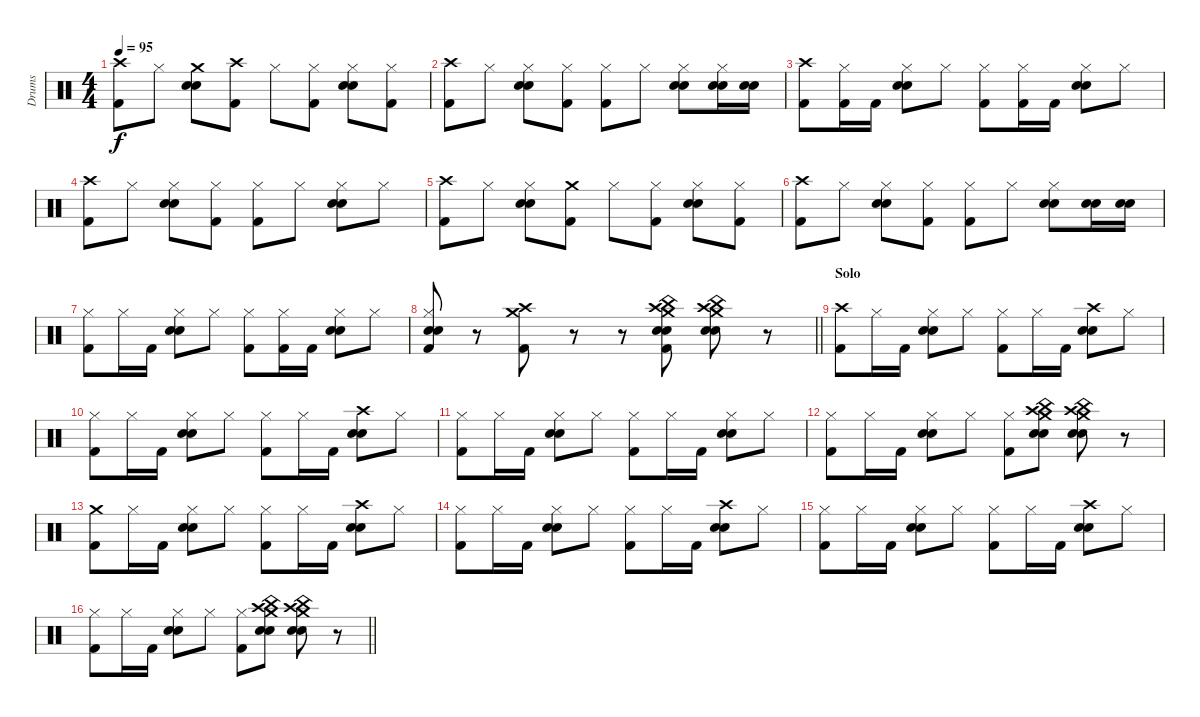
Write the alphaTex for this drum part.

\track ("Drums" "Drums") {instrument percussion}
\staff {score}
\articulation defaults
\ts (4 4)
\tempo 95
\clef neutral
\ks aminor
("Crash high (hit)" "Kick (hit) 2").8{dy f} "Hi-Hat (closed)".8 ("Crash medium (hit)" "Snare (hit) 2" "Electric Snare (hit)").8 ("Crash high (hit)" "Kick (hit) 2").8 "Hi-Hat (closed)".8 ("Hi-Hat (closed)" "Kick (hit) 2").8 ("Hi-Hat (closed)" "Snare (hit) 2" "Electric Snare (hit)").8 ("Hi-Hat (closed)" "Kick (hit) 2").8 |
("Crash high (hit)" "Kick (hit) 2").8 "Hi-Hat (closed)".8 ("Hi-Hat (closed)" "Snare (hit) 2" "Electric Snare (hit)").8 ("Hi-Hat (closed)" "Kick (hit) 2").8 ("Hi-Hat (closed)" "Kick (hit) 2").8 "Hi-Hat (closed)".8 ("Hi-Hat (closed)" "Snare (hit) 2" "Electric Snare (hit)").8 ("Hi-Hat (closed)" "Snare (hit) 2" "Electric Snare (hit)").16 ("Snare (hit) 2" "Electric Snare (hit)").16 |
("Crash high (hit)" "Kick (hit) 2").8 ("Hi-Hat (closed)" "Kick (hit) 2").16 "Kick (hit) 2".16 ("Hi-Hat (closed)" "Snare (hit) 2" "Electric Snare (hit)").8 "Hi-Hat (closed)".8 ("Hi-Hat (closed)" "Kick (hit) 2").8 ("Hi-Hat (closed)" "Kick (hit) 2").16 "Kick (hit) 2".16 ("Hi-Hat (closed)" "Snare (hit) 2" "Electric Snare (hit)").8 "Hi-Hat (closed)".8 |
("Crash high (hit)" "Kick (hit) 2").8 "Hi-Hat (closed)".8 ("Hi-Hat (closed)" "Snare (hit) 2" "Electric Snare (hit)").8 ("Hi-Hat (closed)" "Kick (hit) 2").8 ("Hi-Hat (closed)" "Kick (hit) 2").8 "Hi-Hat (closed)".8 ("Hi-Hat (closed)" "Snare (hit) 2" "Electric Snare (hit)").8 "Hi-Hat (closed)".8 |
("Crash high (hit)" "Kick (hit) 2").8 "Hi-Hat (closed)".8 ("Hi-Hat (closed)" "Snare (hit) 2" "Electric Snare (hit)").8 ("Crash medium (hit)" "Kick (hit) 2").8 "Hi-Hat (closed)".8 ("Hi-Hat (closed)" "Kick (hit) 2").8 ("Hi-Hat (closed)" "Snare (hit) 2" "Electric Snare (hit)").8 ("Hi-Hat (closed)" "Kick (hit) 2").8 |
("Crash high (hit)" "Kick (hit) 2").8 "Hi-Hat (closed)".8 ("Hi-Hat (closed)" "Snare (hit) 2" "Electric Snare (hit)").8 ("Hi-Hat (closed)" "Kick (hit) 2").8 ("Hi-Hat (closed)" "Kick (hit) 2").8 "Hi-Hat (closed)".8 ("Hi-Hat (closed)" "Snare (hit) 2" "Electric Snare (hit)").8 ("Snare (hit) 2" "Electric Snare (hit)").16 ("Snare (hit) 2" "Electric Snare (hit)").16 |
("Hi-Hat (closed)" "Kick (hit) 2").8 "Hi-Hat (closed)".16 "Kick (hit) 2".16 ("Hi-Hat (closed)" "Snare (hit) 2" "Electric Snare (hit)").8 "Hi-Hat (closed)".8 ("Hi-Hat (closed)" "Kick (hit) 2").8 ("Hi-Hat (closed)" "Kick (hit) 2").16 "Kick (hit) 2".16 ("Hi-Hat (closed)" "Snare (hit) 2" "Electric Snare (hit)").8 "Hi-Hat (closed)".8 |
\barLineRight lightlight
("Hi-Hat (closed)" "Snare (hit) 2" "Electric Snare (hit)" "Kick (hit) 2").8 r.8 ("Crash high (hit)" "Crash medium (hit)" "Kick (hit) 2").8 r.8 r.8 ("Crash high (hit)" "Crash medium (hit)" "China (hit)" "Snare (hit) 2" "Electric Snare (hit)" "Kick (hit) 2").8 ("Crash high (hit)" "Crash medium (hit)" "China (hit)" "Snare (hit) 2" "Electric Snare (hit)").8 r.8 |
\section ("" "Solo")
("Crash high (hit)" "Kick (hit) 2").8 "Hi-Hat (closed)".16 "Kick (hit) 2".16 ("Hi-Hat (closed)" "Snare (hit) 2" "Electric Snare (hit)").8 "Hi-Hat (closed)".8 ("Hi-Hat (closed)" "Kick (hit) 2").8 "Hi-Hat (closed)".16 "Kick (hit) 2".16 ("Crash high (hit)" "Snare (hit) 2" "Electric Snare (hit)").8 "Hi-Hat (closed)".8 |
("Hi-Hat (closed)" "Kick (hit) 2").8 "Hi-Hat (closed)".16 "Kick (hit) 2".16 ("Hi-Hat (closed)" "Snare (hit) 2" "Electric Snare (hit)").8 "Hi-Hat (closed)".8 ("Hi-Hat (closed)" "Kick (hit) 2").8 "Hi-Hat (closed)".16 "Kick (hit) 2".16 ("Crash high (hit)" "Snare (hit) 2" "Electric Snare (hit)").8 "Hi-Hat (closed)".8 |
("Hi-Hat (closed)" "Kick (hit) 2").8 "Hi-Hat (closed)".16 "Kick (hit) 2".16 ("Hi-Hat (closed)" "Snare (hit) 2" "Electric Snare (hit)").8 "Hi-Hat (closed)".8 ("Hi-Hat (closed)" "Kick (hit) 2").8 "Hi-Hat (closed)".16 "Kick (hit) 2".16 ("Hi-Hat (closed)" "Snare (hit) 2" "Electric Snare (hit)").8 "Hi-Hat (closed)".8 |
("Hi-Hat (closed)" "Kick (hit) 2").8 "Hi-Hat (closed)".16 "Kick (hit) 2".16 ("Hi-Hat (closed)" "Snare (hit) 2" "Electric Snare (hit)").8 "Hi-Hat (closed)".8 ("Hi-Hat (closed)" "Kick (hit) 2").8 ("Crash high (hit)" "Crash medium (hit)" "China (hit)" "Snare (hit) 2" "Electric Snare (hit)").8 ("Crash high (hit)" "Crash medium (hit)" "China (hit)" "Snare (hit) 2" "Electric Snare (hit)").8 r.8 |
("Crash medium (hit)" "Kick (hit) 2").8 "Hi-Hat (closed)".16 "Kick (hit) 2".16 ("Hi-Hat (closed)" "Snare (hit) 2" "Electric Snare (hit)").8 "Hi-Hat (closed)".8 ("Hi-Hat (closed)" "Kick (hit) 2").8 "Hi-Hat (closed)".16 "Kick (hit) 2".16 ("Crash high (hit)" "Snare (hit) 2" "Electric Snare (hit)").8 "Hi-Hat (closed)".8 |
("Hi-Hat (closed)" "Kick (hit) 2").8 "Hi-Hat (closed)".16 "Kick (hit) 2".16 ("Hi-Hat (closed)" "Snare (hit) 2" "Electric Snare (hit)").8 "Hi-Hat (closed)".8 ("Hi-Hat (closed)" "Kick (hit) 2").8 "Hi-Hat (closed)".16 "Kick (hit) 2".16 ("Crash high (hit)" "Snare (hit) 2" "Electric Snare (hit)").8 "Hi-Hat (closed)".8 |
("Hi-Hat (closed)" "Kick (hit) 2").8 "Hi-Hat (closed)".16 "Kick (hit) 2".16 ("Hi-Hat (closed)" "Snare (hit) 2" "Electric Snare (hit)").8 "Hi-Hat (closed)".8 ("Hi-Hat (closed)" "Kick (hit) 2").8 "Hi-Hat (closed)".16 "Kick (hit) 2".16 ("Crash high (hit)" "Snare (hit) 2" "Electric Snare (hit)").8 "Hi-Hat (closed)".8 |
\barLineRight lightlight
("Hi-Hat (closed)" "Kick (hit) 2").8 "Hi-Hat (closed)".16 "Kick (hit) 2".16 ("Hi-Hat (closed)" "Snare (hit) 2" "Electric Snare (hit)").8 "Hi-Hat (closed)".8 ("Hi-Hat (closed)" "Kick (hit) 2").8 ("Crash high (hit)" "Crash medium (hit)" "China (hit)" "Snare (hit) 2" "Electric Snare (hit)").8 ("Crash high (hit)" "Crash medium (hit)" "China (hit)" "Snare (hit) 2" "Electric Snare (hit)").8 r.8
